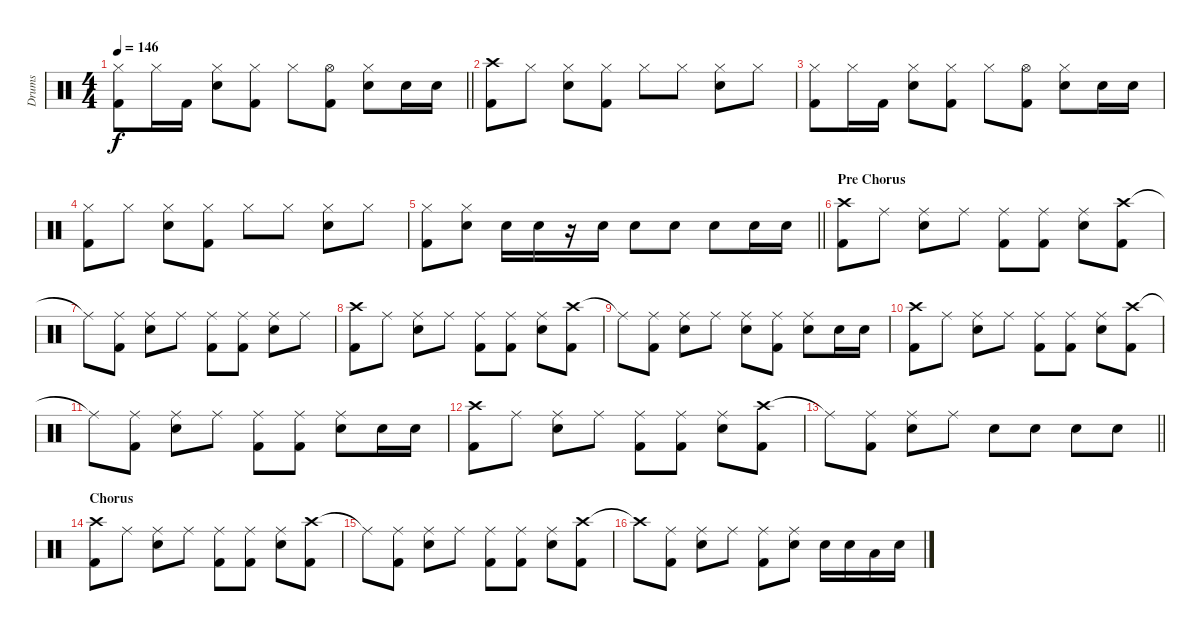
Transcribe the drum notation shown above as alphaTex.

\track ("Drums" "Drums") {instrument percussion}
\staff {score}
\articulation defaults
\ts (4 4)
\tempo 146
\clef neutral
\barLineRight lightlight
\ks c
("Hi-Hat (closed)" "Kick (hit) 2").8{dy f} "Hi-Hat (closed)".16 "Kick (hit) 2".16 ("Hi-Hat (closed)" "Snare (hit) 2").8 ("Hi-Hat (closed)" "Kick (hit) 2").8 "Hi-Hat (closed)".8 ("Hi-Hat (open)" "Kick (hit) 2").8 ("Hi-Hat (closed)" "Snare (hit) 2").8 "Snare (hit) 2".16 "Snare (hit) 2".16 |
("Crash high (hit)" "Kick (hit) 2").8 "Hi-Hat (closed)".8 ("Hi-Hat (closed)" "Snare (hit) 2").8 ("Hi-Hat (closed)" "Kick (hit) 2").8 "Hi-Hat (closed)".8 "Hi-Hat (closed)".8 ("Hi-Hat (closed)" "Snare (hit) 2").8 "Hi-Hat (closed)".8 |
("Hi-Hat (closed)" "Kick (hit) 2").8 "Hi-Hat (closed)".16 "Kick (hit) 2".16 ("Hi-Hat (closed)" "Snare (hit) 2").8 ("Hi-Hat (closed)" "Kick (hit) 2").8 "Hi-Hat (closed)".8 ("Hi-Hat (open)" "Kick (hit) 2").8 ("Hi-Hat (closed)" "Snare (hit) 2").8 "Snare (hit) 2".16 "Snare (hit) 2".16 |
("Hi-Hat (closed)" "Kick (hit) 2").8 "Hi-Hat (closed)".8 ("Hi-Hat (closed)" "Snare (hit) 2").8 ("Hi-Hat (closed)" "Kick (hit) 2").8 "Hi-Hat (closed)".8 "Hi-Hat (closed)".8 ("Hi-Hat (closed)" "Snare (hit) 2").8 "Hi-Hat (closed)".8 |
\barLineRight lightlight
("Hi-Hat (closed)" "Kick (hit) 2").8 ("Hi-Hat (closed)" "Snare (hit) 2").8 "Snare (hit) 2".16 "Snare (hit) 2".16 r.16 "Snare (hit) 2".16 "Snare (hit) 2".8 "Snare (hit) 2".8 "Snare (hit) 2".8 "Snare (hit) 2".16 "Snare (hit) 2".16 |
\section ("" "Pre Chorus")
("Crash high (hit)" "Kick (hit) 2").8 "Ride (middle)".8 ("Ride (middle)" "Snare (hit) 2").8 "Ride (middle)".8 ("Ride (middle)" "Kick (hit) 2").8 ("Ride (middle)" "Kick (hit) 2").8 ("Ride (middle)" "Snare (hit) 2").8 ("Crash high (hit)" "Kick (hit) 2").8 |
"Ride (middle)"{t}.8 ("Ride (middle)" "Kick (hit) 2").8 ("Ride (middle)" "Snare (hit) 2").8 "Ride (middle)".8 ("Ride (middle)" "Kick (hit) 2").8 ("Ride (middle)" "Kick (hit) 2").8 ("Ride (middle)" "Snare (hit) 2").8 "Ride (middle)".8 |
("Crash high (hit)" "Kick (hit) 2").8 "Ride (middle)".8 ("Ride (middle)" "Snare (hit) 2").8 "Ride (middle)".8 ("Ride (middle)" "Kick (hit) 2").8 ("Ride (middle)" "Kick (hit) 2").8 ("Ride (middle)" "Snare (hit) 2").8 ("Crash high (hit)" "Kick (hit) 2").8 |
"Ride (middle)"{t}.8 ("Ride (middle)" "Kick (hit) 2").8 ("Ride (middle)" "Snare (hit) 2").8 "Ride (middle)".8 ("Ride (middle)" "Snare (hit) 2").8 ("Ride (middle)" "Kick (hit) 2").8 ("Ride (middle)" "Snare (hit) 2").8 "Snare (hit) 2".16 "Snare (hit) 2".16 |
("Crash high (hit)" "Kick (hit) 2").8 "Ride (middle)".8 ("Ride (middle)" "Snare (hit) 2").8 "Ride (middle)".8 ("Ride (middle)" "Kick (hit) 2").8 ("Ride (middle)" "Kick (hit) 2").8 ("Ride (middle)" "Snare (hit) 2").8 ("Crash high (hit)" "Kick (hit) 2").8 |
"Ride (middle)"{t}.8 ("Ride (middle)" "Kick (hit) 2").8 ("Ride (middle)" "Snare (hit) 2").8 "Ride (middle)".8 ("Ride (middle)" "Kick (hit) 2").8 ("Ride (middle)" "Kick (hit) 2").8 ("Ride (middle)" "Snare (hit) 2").8 "Snare (hit) 2".16 "Snare (hit) 2".16 |
("Crash high (hit)" "Kick (hit) 2").8 "Ride (middle)".8 ("Ride (middle)" "Snare (hit) 2").8 "Ride (middle)".8 ("Ride (middle)" "Kick (hit) 2").8 ("Ride (middle)" "Kick (hit) 2").8 ("Ride (middle)" "Snare (hit) 2").8 ("Crash high (hit)" "Kick (hit) 2").8 |
\barLineRight lightlight "Ride (middle)"{t}.8
("Ride (middle)" "Kick (hit) 2").8 ("Ride (middle)" "Snare (hit) 2").8 "Ride (middle)".8 "Snare (hit) 2".8 "Snare (hit) 2".8 "Snare (hit) 2".8 "Snare (hit) 2".8 |
\section ("" "Chorus")
("Crash high (hit)" "Kick (hit) 2").8 "Ride (middle)".8 ("Ride (middle)" "Snare (hit) 2").8 "Ride (middle)".8 ("Ride (middle)" "Kick (hit) 2").8 ("Ride (middle)" "Kick (hit) 2").8 ("Ride (middle)" "Snare (hit) 2").8 ("Crash high (hit)" "Kick (hit) 2").8 |
"Ride (middle)"{t}.8 ("Ride (middle)" "Kick (hit) 2").8 ("Ride (middle)" "Snare (hit) 2").8 "Ride (middle)".8 ("Ride (middle)" "Kick (hit) 2").8 ("Ride (middle)" "Kick (hit) 2").8 ("Ride (middle)" "Snare (hit) 2").8 ("Crash high (hit)" "Kick (hit) 2").8 |
"Crash high (hit)"{t}.8 ("Ride (middle)" "Kick (hit) 2").8 ("Ride (middle)" "Snare (hit) 2").8 "Ride (middle)".8 ("Ride (middle)" "Kick (hit) 2").8 ("Ride (middle)" "Snare (hit) 2").8 "Snare (hit) 2".16 "Snare (hit) 2".16 "Low Tom (hit)".16 "Snare (hit) 2".16
